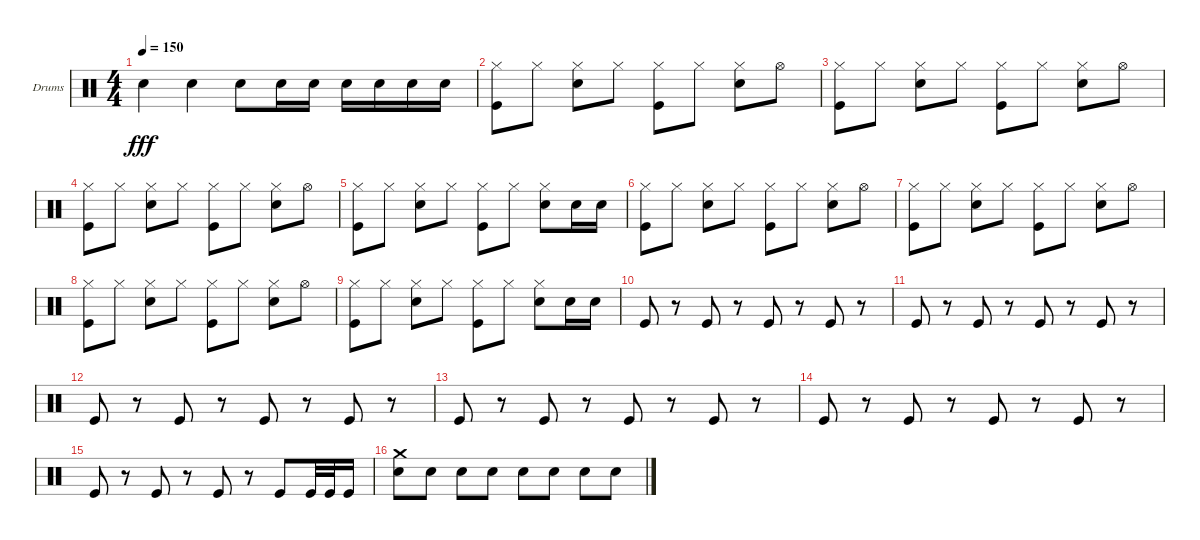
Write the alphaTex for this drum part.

\bracketExtendMode groupsimilarinstruments
\firstSystemTrackNameOrientation horizontal
\otherSystemsTrackNameOrientation horizontal
\track ("Jamie" "Drums") {instrument percussion}
\staff {score}
\articulation defaults
\ts (4 4)
\tempo 150
\clef neutral
\ks c "Snare (hit) 2".4{dy fff} "Snare (hit) 2".4 "Snare (hit) 2".8 "Snare (hit) 2".16 "Snare (hit) 2".16 "Snare (hit) 2".16 "Snare (hit) 2".16 "Snare (hit) 2".16 "Snare (hit) 2".16
|
("Kick (hit)" "Hi-Hat (closed)").8 "Hi-Hat (closed)".8 ("Hi-Hat (closed)" "Snare (hit) 2").8 "Hi-Hat (closed)".8 ("Kick (hit)" "Hi-Hat (closed)").8 "Hi-Hat (closed)".8 ("Hi-Hat (closed)" "Snare (hit) 2").8 "Hi-Hat (open)".8 |
("Kick (hit)" "Hi-Hat (closed)").8 "Hi-Hat (closed)".8 ("Hi-Hat (closed)" "Snare (hit) 2").8 "Hi-Hat (closed)".8 ("Kick (hit)" "Hi-Hat (closed)").8 "Hi-Hat (closed)".8 ("Hi-Hat (closed)" "Snare (hit) 2").8 "Hi-Hat (open)".8 |
("Kick (hit)" "Hi-Hat (closed)").8 "Hi-Hat (closed)".8 ("Hi-Hat (closed)" "Snare (hit) 2").8 "Hi-Hat (closed)".8 ("Kick (hit)" "Hi-Hat (closed)").8 "Hi-Hat (closed)".8 ("Hi-Hat (closed)" "Snare (hit) 2").8 "Hi-Hat (open)".8 |
("Kick (hit)" "Hi-Hat (closed)").8 "Hi-Hat (closed)".8 ("Hi-Hat (closed)" "Snare (hit) 2").8 "Hi-Hat (closed)".8 ("Kick (hit)" "Hi-Hat (closed)").8 "Hi-Hat (closed)".8 ("Hi-Hat (closed)" "Snare (hit) 2").8 "Snare (hit) 2".16 "Snare (hit) 2".16 |
("Kick (hit)" "Hi-Hat (closed)").8 "Hi-Hat (closed)".8 ("Hi-Hat (closed)" "Snare (hit) 2").8 "Hi-Hat (closed)".8 ("Kick (hit)" "Hi-Hat (closed)").8 "Hi-Hat (closed)".8 ("Hi-Hat (closed)" "Snare (hit) 2").8 "Hi-Hat (open)".8 |
("Kick (hit)" "Hi-Hat (closed)").8 "Hi-Hat (closed)".8 ("Hi-Hat (closed)" "Snare (hit) 2").8 "Hi-Hat (closed)".8 ("Kick (hit)" "Hi-Hat (closed)").8 "Hi-Hat (closed)".8 ("Hi-Hat (closed)" "Snare (hit) 2").8 "Hi-Hat (open)".8 |
("Kick (hit)" "Hi-Hat (closed)").8 "Hi-Hat (closed)".8 ("Hi-Hat (closed)" "Snare (hit) 2").8 "Hi-Hat (closed)".8 ("Kick (hit)" "Hi-Hat (closed)").8 "Hi-Hat (closed)".8 ("Hi-Hat (closed)" "Snare (hit) 2").8 "Hi-Hat (open)".8 |
("Kick (hit)" "Hi-Hat (closed)").8 "Hi-Hat (closed)".8 ("Hi-Hat (closed)" "Snare (hit) 2").8 "Hi-Hat (closed)".8 ("Kick (hit)" "Hi-Hat (closed)").8 "Hi-Hat (closed)".8 ("Hi-Hat (closed)" "Snare (hit) 2").8 "Snare (hit) 2".16 "Snare (hit) 2".16 |
"Kick (hit)".8 r.8 "Kick (hit)".8 r.8 "Kick (hit)".8 r.8 "Kick (hit)".8 r.8 |
"Kick (hit)".8 r.8 "Kick (hit)".8 r.8 "Kick (hit)".8 r.8 "Kick (hit)".8 r.8 |
"Kick (hit)".8 r.8 "Kick (hit)".8 r.8 "Kick (hit)".8 r.8 "Kick (hit)".8 r.8 |
"Kick (hit)".8 r.8 "Kick (hit)".8 r.8 "Kick (hit)".8 r.8 "Kick (hit)".8 r.8 |
"Kick (hit)".8 r.8 "Kick (hit)".8 r.8 "Kick (hit)".8 r.8 "Kick (hit)".8 r.8 |
"Kick (hit)".8 r.8 "Kick (hit)".8 r.8 "Kick (hit)".8 r.8 "Kick (hit)".8 "Kick (hit)".32 "Kick (hit)".32 "Kick (hit)".16 |
("Snare (hit) 2" "Crash medium (hit)").8 "Snare (hit) 2".8 "Snare (hit) 2".8 "Snare (hit) 2".8 "Snare (hit) 2".8 "Snare (hit) 2".8 "Snare (hit) 2".8 "Snare (hit) 2".8
